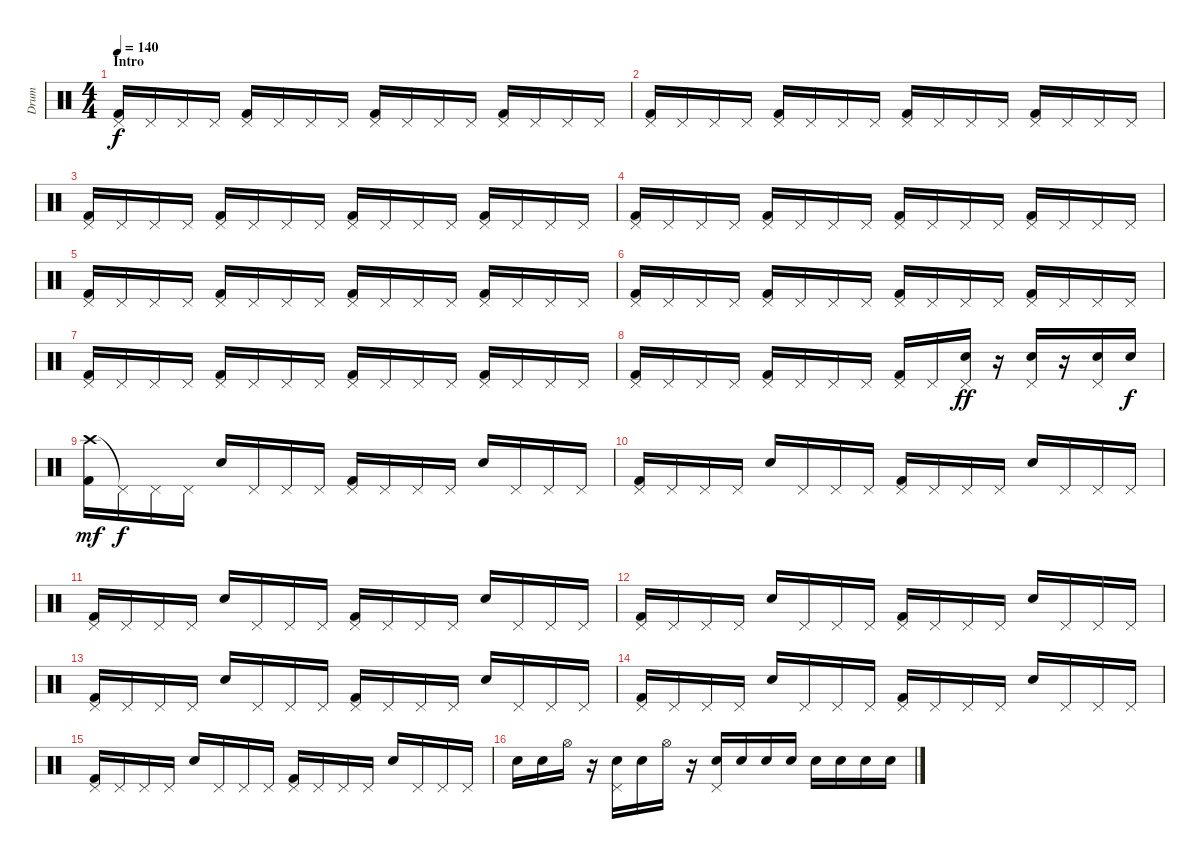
\track ("Drum" "Drum") {instrument percussion}
\staff {score}
\articulation defaults
\ts (4 4)
\section ("" "Intro")
\tempo 140
\clef neutral
\ks c
("Pedal Hi-Hat (hit)" "Kick (hit) 2").16{dy f} "Pedal Hi-Hat (hit)".16 "Pedal Hi-Hat (hit)".16 "Pedal Hi-Hat (hit)".16 ("Pedal Hi-Hat (hit)" "Kick (hit) 2").16 "Pedal Hi-Hat (hit)".16 "Pedal Hi-Hat (hit)".16 "Pedal Hi-Hat (hit)".16 ("Pedal Hi-Hat (hit)" "Kick (hit) 2").16 "Pedal Hi-Hat (hit)".16 "Pedal Hi-Hat (hit)".16 "Pedal Hi-Hat (hit)".16 ("Pedal Hi-Hat (hit)" "Kick (hit) 2").16 "Pedal Hi-Hat (hit)".16 "Pedal Hi-Hat (hit)".16 "Pedal Hi-Hat (hit)".16 |
("Pedal Hi-Hat (hit)" "Kick (hit) 2").16 "Pedal Hi-Hat (hit)".16 "Pedal Hi-Hat (hit)".16 "Pedal Hi-Hat (hit)".16 ("Pedal Hi-Hat (hit)" "Kick (hit) 2").16 "Pedal Hi-Hat (hit)".16 "Pedal Hi-Hat (hit)".16 "Pedal Hi-Hat (hit)".16 ("Pedal Hi-Hat (hit)" "Kick (hit) 2").16 "Pedal Hi-Hat (hit)".16 "Pedal Hi-Hat (hit)".16 "Pedal Hi-Hat (hit)".16 ("Pedal Hi-Hat (hit)" "Kick (hit) 2").16 "Pedal Hi-Hat (hit)".16 "Pedal Hi-Hat (hit)".16 "Pedal Hi-Hat (hit)".16 |
("Pedal Hi-Hat (hit)" "Kick (hit) 2").16 "Pedal Hi-Hat (hit)".16 "Pedal Hi-Hat (hit)".16 "Pedal Hi-Hat (hit)".16 ("Pedal Hi-Hat (hit)" "Kick (hit) 2").16 "Pedal Hi-Hat (hit)".16 "Pedal Hi-Hat (hit)".16 "Pedal Hi-Hat (hit)".16 ("Pedal Hi-Hat (hit)" "Kick (hit) 2").16 "Pedal Hi-Hat (hit)".16 "Pedal Hi-Hat (hit)".16 "Pedal Hi-Hat (hit)".16 ("Pedal Hi-Hat (hit)" "Kick (hit) 2").16 "Pedal Hi-Hat (hit)".16 "Pedal Hi-Hat (hit)".16 "Pedal Hi-Hat (hit)".16 |
("Pedal Hi-Hat (hit)" "Kick (hit) 2").16 "Pedal Hi-Hat (hit)".16 "Pedal Hi-Hat (hit)".16 "Pedal Hi-Hat (hit)".16 ("Pedal Hi-Hat (hit)" "Kick (hit) 2").16 "Pedal Hi-Hat (hit)".16 "Pedal Hi-Hat (hit)".16 "Pedal Hi-Hat (hit)".16 ("Pedal Hi-Hat (hit)" "Kick (hit) 2").16 "Pedal Hi-Hat (hit)".16 "Pedal Hi-Hat (hit)".16 "Pedal Hi-Hat (hit)".16 ("Pedal Hi-Hat (hit)" "Kick (hit) 2").16 "Pedal Hi-Hat (hit)".16 "Pedal Hi-Hat (hit)".16 "Pedal Hi-Hat (hit)".16 |
("Pedal Hi-Hat (hit)" "Kick (hit) 2").16 "Pedal Hi-Hat (hit)".16 "Pedal Hi-Hat (hit)".16 "Pedal Hi-Hat (hit)".16 ("Pedal Hi-Hat (hit)" "Kick (hit) 2").16 "Pedal Hi-Hat (hit)".16 "Pedal Hi-Hat (hit)".16 "Pedal Hi-Hat (hit)".16 ("Pedal Hi-Hat (hit)" "Kick (hit) 2").16 "Pedal Hi-Hat (hit)".16 "Pedal Hi-Hat (hit)".16 "Pedal Hi-Hat (hit)".16 ("Pedal Hi-Hat (hit)" "Kick (hit) 2").16 "Pedal Hi-Hat (hit)".16 "Pedal Hi-Hat (hit)".16 "Pedal Hi-Hat (hit)".16 |
("Pedal Hi-Hat (hit)" "Kick (hit) 2").16 "Pedal Hi-Hat (hit)".16 "Pedal Hi-Hat (hit)".16 "Pedal Hi-Hat (hit)".16 ("Pedal Hi-Hat (hit)" "Kick (hit) 2").16 "Pedal Hi-Hat (hit)".16 "Pedal Hi-Hat (hit)".16 "Pedal Hi-Hat (hit)".16 ("Pedal Hi-Hat (hit)" "Kick (hit) 2").16 "Pedal Hi-Hat (hit)".16 "Pedal Hi-Hat (hit)".16 "Pedal Hi-Hat (hit)".16 ("Pedal Hi-Hat (hit)" "Kick (hit) 2").16 "Pedal Hi-Hat (hit)".16 "Pedal Hi-Hat (hit)".16 "Pedal Hi-Hat (hit)".16 |
("Pedal Hi-Hat (hit)" "Kick (hit) 2").16 "Pedal Hi-Hat (hit)".16 "Pedal Hi-Hat (hit)".16 "Pedal Hi-Hat (hit)".16 ("Pedal Hi-Hat (hit)" "Kick (hit) 2").16 "Pedal Hi-Hat (hit)".16 "Pedal Hi-Hat (hit)".16 "Pedal Hi-Hat (hit)".16 ("Pedal Hi-Hat (hit)" "Kick (hit) 2").16 "Pedal Hi-Hat (hit)".16 "Pedal Hi-Hat (hit)".16 "Pedal Hi-Hat (hit)".16 ("Pedal Hi-Hat (hit)" "Kick (hit) 2").16 "Pedal Hi-Hat (hit)".16 "Pedal Hi-Hat (hit)".16 "Pedal Hi-Hat (hit)".16 |
("Pedal Hi-Hat (hit)" "Kick (hit) 2").16 "Pedal Hi-Hat (hit)".16 "Pedal Hi-Hat (hit)".16 "Pedal Hi-Hat (hit)".16 ("Pedal Hi-Hat (hit)" "Kick (hit) 2").16 "Pedal Hi-Hat (hit)".16 "Pedal Hi-Hat (hit)".16 "Pedal Hi-Hat (hit)".16 ("Pedal Hi-Hat (hit)" "Kick (hit) 2").16 "Pedal Hi-Hat (hit)".16 ("Pedal Hi-Hat (hit)" "Snare (hit) 2").16{dy ff} r.16 ("Pedal Hi-Hat (hit)" "Snare (hit) 2").16 r.16 ("Pedal Hi-Hat (hit)" "Snare (hit) 2").16 "Snare (hit) 2".16{dy f} |
("Crash high (hit)" "Kick (hit) 2").16{dy mf} "Pedal Hi-Hat (hit)"{t}.16{dy f} "Pedal Hi-Hat (hit)".16 "Pedal Hi-Hat (hit)".16 "Snare (hit) 2".16 "Pedal Hi-Hat (hit)".16 "Pedal Hi-Hat (hit)".16 "Pedal Hi-Hat (hit)".16 ("Pedal Hi-Hat (hit)" "Kick (hit) 2").16 "Pedal Hi-Hat (hit)".16 "Pedal Hi-Hat (hit)".16 "Pedal Hi-Hat (hit)".16 "Snare (hit) 2".16 "Pedal Hi-Hat (hit)".16 "Pedal Hi-Hat (hit)".16 "Pedal Hi-Hat (hit)".16 |
("Pedal Hi-Hat (hit)" "Kick (hit) 2").16 "Pedal Hi-Hat (hit)".16 "Pedal Hi-Hat (hit)".16 "Pedal Hi-Hat (hit)".16 "Snare (hit) 2".16 "Pedal Hi-Hat (hit)".16 "Pedal Hi-Hat (hit)".16 "Pedal Hi-Hat (hit)".16 ("Pedal Hi-Hat (hit)" "Kick (hit) 2").16 "Pedal Hi-Hat (hit)".16 "Pedal Hi-Hat (hit)".16 "Pedal Hi-Hat (hit)".16 "Snare (hit) 2".16 "Pedal Hi-Hat (hit)".16 "Pedal Hi-Hat (hit)".16 "Pedal Hi-Hat (hit)".16 |
("Pedal Hi-Hat (hit)" "Kick (hit) 2").16 "Pedal Hi-Hat (hit)".16 "Pedal Hi-Hat (hit)".16 "Pedal Hi-Hat (hit)".16 "Snare (hit) 2".16 "Pedal Hi-Hat (hit)".16 "Pedal Hi-Hat (hit)".16 "Pedal Hi-Hat (hit)".16 ("Pedal Hi-Hat (hit)" "Kick (hit) 2").16 "Pedal Hi-Hat (hit)".16 "Pedal Hi-Hat (hit)".16 "Pedal Hi-Hat (hit)".16 "Snare (hit) 2".16 "Pedal Hi-Hat (hit)".16 "Pedal Hi-Hat (hit)".16 "Pedal Hi-Hat (hit)".16 |
("Pedal Hi-Hat (hit)" "Kick (hit) 2").16 "Pedal Hi-Hat (hit)".16 "Pedal Hi-Hat (hit)".16 "Pedal Hi-Hat (hit)".16 "Snare (hit) 2".16 "Pedal Hi-Hat (hit)".16 "Pedal Hi-Hat (hit)".16 "Pedal Hi-Hat (hit)".16 ("Pedal Hi-Hat (hit)" "Kick (hit) 2").16 "Pedal Hi-Hat (hit)".16 "Pedal Hi-Hat (hit)".16 "Pedal Hi-Hat (hit)".16 "Snare (hit) 2".16 "Pedal Hi-Hat (hit)".16 "Pedal Hi-Hat (hit)".16 "Pedal Hi-Hat (hit)".16 |
("Pedal Hi-Hat (hit)" "Kick (hit) 2").16 "Pedal Hi-Hat (hit)".16 "Pedal Hi-Hat (hit)".16 "Pedal Hi-Hat (hit)".16 "Snare (hit) 2".16 "Pedal Hi-Hat (hit)".16 "Pedal Hi-Hat (hit)".16 "Pedal Hi-Hat (hit)".16 ("Pedal Hi-Hat (hit)" "Kick (hit) 2").16 "Pedal Hi-Hat (hit)".16 "Pedal Hi-Hat (hit)".16 "Pedal Hi-Hat (hit)".16 "Snare (hit) 2".16 "Pedal Hi-Hat (hit)".16 "Pedal Hi-Hat (hit)".16 "Pedal Hi-Hat (hit)".16 |
("Pedal Hi-Hat (hit)" "Kick (hit) 2").16 "Pedal Hi-Hat (hit)".16 "Pedal Hi-Hat (hit)".16 "Pedal Hi-Hat (hit)".16 "Snare (hit) 2".16 "Pedal Hi-Hat (hit)".16 "Pedal Hi-Hat (hit)".16 "Pedal Hi-Hat (hit)".16 ("Pedal Hi-Hat (hit)" "Kick (hit) 2").16 "Pedal Hi-Hat (hit)".16 "Pedal Hi-Hat (hit)".16 "Pedal Hi-Hat (hit)".16 "Snare (hit) 2".16 "Pedal Hi-Hat (hit)".16 "Pedal Hi-Hat (hit)".16 "Pedal Hi-Hat (hit)".16 |
("Pedal Hi-Hat (hit)" "Kick (hit) 2").16 "Pedal Hi-Hat (hit)".16 "Pedal Hi-Hat (hit)".16 "Pedal Hi-Hat (hit)".16 "Snare (hit) 2".16 "Pedal Hi-Hat (hit)".16 "Pedal Hi-Hat (hit)".16 "Pedal Hi-Hat (hit)".16 ("Pedal Hi-Hat (hit)" "Kick (hit) 2").16 "Pedal Hi-Hat (hit)".16 "Pedal Hi-Hat (hit)".16 "Pedal Hi-Hat (hit)".16 "Snare (hit) 2".16 "Pedal Hi-Hat (hit)".16 "Pedal Hi-Hat (hit)".16 "Pedal Hi-Hat (hit)".16 |
"Snare (hit) 2".16 "Snare (hit) 2".16 "Hi-Hat (open)".16 r.16 ("Pedal Hi-Hat (hit)" "Snare (hit) 2").16 "Snare (hit) 2".16 "Hi-Hat (open)".16 r.16 ("Pedal Hi-Hat (hit)" "Snare (hit) 2").16 "Snare (hit) 2".16 "Snare (hit) 2".16 "Snare (hit) 2".16 "Snare (hit) 2".16 "Snare (hit) 2".16 "Snare (hit) 2".16 "Snare (hit) 2".16
